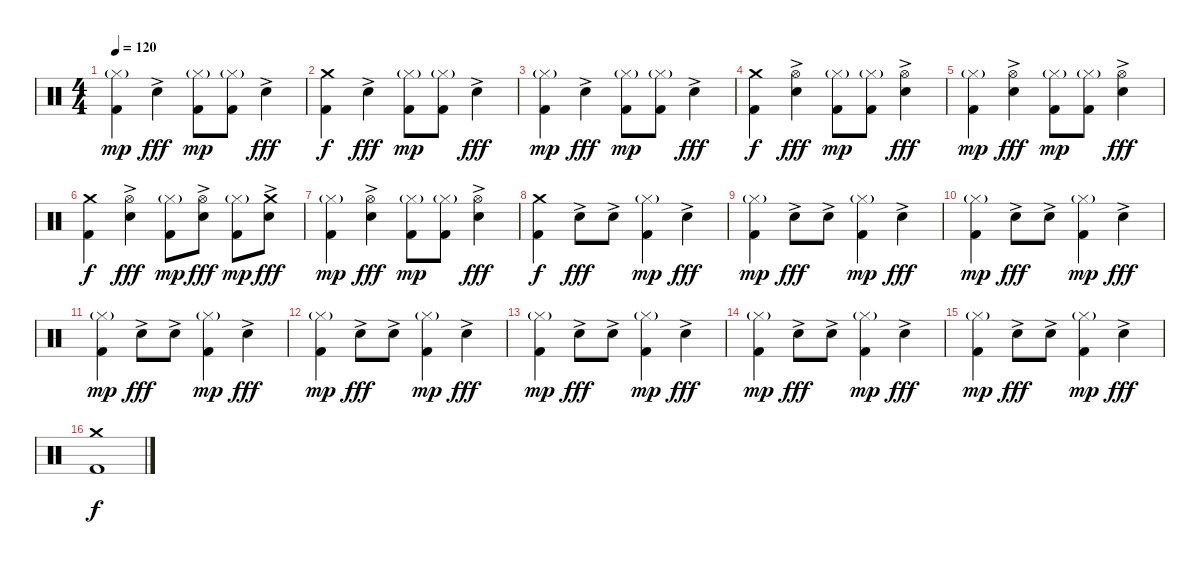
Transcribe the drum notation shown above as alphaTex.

\track "" {instrument percussion}
\staff {score}
\articulation defaults
\ts (4 4)
\tempo 120
\clef neutral
\ks c
("Kick (hit) 2" "Hi-Hat (closed)"{g}).4{dy mp} "Electric Snare (hit)"{ac}.4{dy fff} ("Kick (hit) 2" "Hi-Hat (closed)"{g}).8{dy mp} ("Kick (hit) 2" "Hi-Hat (closed)"{g}).8 "Electric Snare (hit)"{ac}.4{dy fff} |
("Kick (hit) 2" "Crash medium (hit)").4{dy f} "Electric Snare (hit)"{ac}.4{dy fff} ("Kick (hit) 2" "Hi-Hat (closed)"{g}).8{dy mp} ("Kick (hit) 2" "Hi-Hat (closed)"{g}).8 "Electric Snare (hit)"{ac}.4{dy fff} |
("Kick (hit) 2" "Hi-Hat (closed)"{g}).4{dy mp} "Electric Snare (hit)"{ac}.4{dy fff} ("Kick (hit) 2" "Hi-Hat (closed)"{g}).8{dy mp} ("Kick (hit) 2" "Hi-Hat (closed)"{g}).8 "Electric Snare (hit)"{ac}.4{dy fff} |
("Kick (hit) 2" "Crash medium (hit)").4{dy f} ("Electric Snare (hit)"{ac} "Hi-Hat (open)").4{dy fff} ("Kick (hit) 2" "Hi-Hat (closed)"{g}).8{dy mp} ("Kick (hit) 2" "Hi-Hat (closed)"{g}).8 ("Electric Snare (hit)"{ac} "Hi-Hat (open)").4{dy fff} |
("Kick (hit) 2" "Hi-Hat (closed)"{g}).4{dy mp} ("Electric Snare (hit)"{ac} "Hi-Hat (open)").4{dy fff} ("Kick (hit) 2" "Hi-Hat (closed)"{g}).8{dy mp} ("Kick (hit) 2" "Hi-Hat (closed)"{g}).8 ("Electric Snare (hit)"{ac} "Hi-Hat (open)").4{dy fff} |
("Kick (hit) 2" "Crash medium (hit)").4{dy f} ("Electric Snare (hit)"{ac} "Hi-Hat (open)").4{dy fff} ("Kick (hit) 2" "Hi-Hat (closed)"{g}).8{dy mp} ("Electric Snare (hit)"{ac} "Hi-Hat (open)").8{dy fff} ("Kick (hit) 2" "Hi-Hat (closed)"{g}).8{dy mp} ("Electric Snare (hit)"{ac} "Crash medium (hit)").8{dy fff} |
("Kick (hit) 2" "Hi-Hat (closed)"{g}).4{dy mp} ("Electric Snare (hit)"{ac} "Hi-Hat (open)").4{dy fff} ("Kick (hit) 2" "Hi-Hat (closed)"{g}).8{dy mp} ("Kick (hit) 2" "Hi-Hat (closed)"{g}).8 ("Electric Snare (hit)"{ac} "Hi-Hat (open)").4{dy fff} |
("Kick (hit) 2" "Crash medium (hit)").4{dy f} "Electric Snare (hit)"{ac}.8{dy fff} "Electric Snare (hit)"{ac}.8 ("Kick (hit) 2" "Hi-Hat (closed)"{g}).4{dy mp} "Electric Snare (hit)"{ac}.4{dy fff} |
("Kick (hit) 2" "Hi-Hat (closed)"{g}).4{dy mp} "Electric Snare (hit)"{ac}.8{dy fff} "Electric Snare (hit)"{ac}.8 ("Kick (hit) 2" "Hi-Hat (closed)"{g}).4{dy mp} "Electric Snare (hit)"{ac}.4{dy fff} |
("Kick (hit) 2" "Hi-Hat (closed)"{g}).4{dy mp} "Electric Snare (hit)"{ac}.8{dy fff} "Electric Snare (hit)"{ac}.8 ("Kick (hit) 2" "Hi-Hat (closed)"{g}).4{dy mp} "Electric Snare (hit)"{ac}.4{dy fff} |
("Kick (hit) 2" "Hi-Hat (closed)"{g}).4{dy mp} "Electric Snare (hit)"{ac}.8{dy fff} "Electric Snare (hit)"{ac}.8 ("Kick (hit) 2" "Hi-Hat (closed)"{g}).4{dy mp} "Electric Snare (hit)"{ac}.4{dy fff} |
("Kick (hit) 2" "Hi-Hat (closed)"{g}).4{dy mp} "Electric Snare (hit)"{ac}.8{dy fff} "Electric Snare (hit)"{ac}.8 ("Kick (hit) 2" "Hi-Hat (closed)"{g}).4{dy mp} "Electric Snare (hit)"{ac}.4{dy fff} |
("Kick (hit) 2" "Hi-Hat (closed)"{g}).4{dy mp} "Electric Snare (hit)"{ac}.8{dy fff} "Electric Snare (hit)"{ac}.8 ("Kick (hit) 2" "Hi-Hat (closed)"{g}).4{dy mp} "Electric Snare (hit)"{ac}.4{dy fff} |
("Kick (hit) 2" "Hi-Hat (closed)"{g}).4{dy mp} "Electric Snare (hit)"{ac}.8{dy fff} "Electric Snare (hit)"{ac}.8 ("Kick (hit) 2" "Hi-Hat (closed)"{g}).4{dy mp} "Electric Snare (hit)"{ac}.4{dy fff} |
("Kick (hit) 2" "Hi-Hat (closed)"{g}).4{dy mp} "Electric Snare (hit)"{ac}.8{dy fff} "Electric Snare (hit)"{ac}.8 ("Kick (hit) 2" "Hi-Hat (closed)"{g}).4{dy mp} "Electric Snare (hit)"{ac}.4{dy fff} |
("Kick (hit) 2" "Crash medium (hit)").1{dy f}
